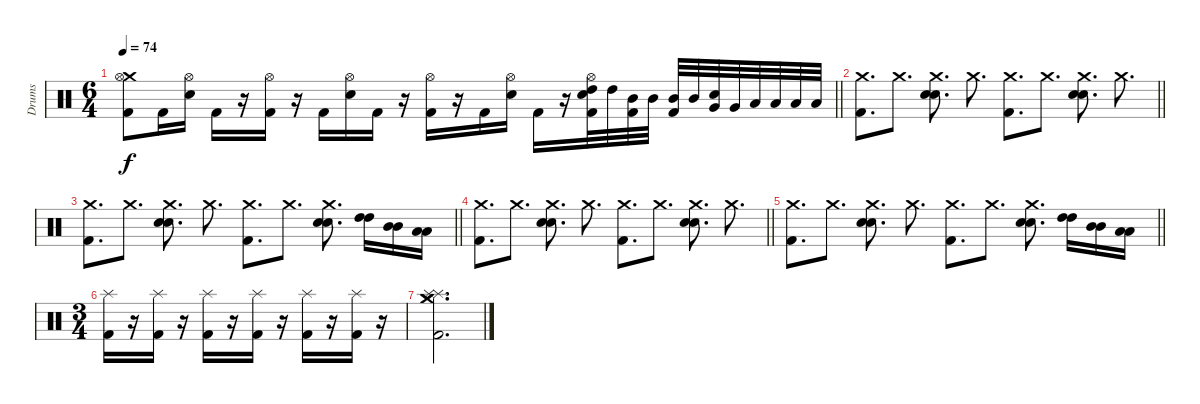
\track ("Drums" "Drums") {instrument percussion}
\staff {score}
\articulation defaults
\ts (6 4)
\tempo 74
\clef neutral
\barLineRight lightlight
\ks c
("Crash medium (hit)" "Hi-Hat (open)" "Kick (hit) 2").8{dy f} "Kick (hit) 2".16 ("Hi-Hat (open)" "Electric Snare (hit)").16 "Kick (hit) 2".16 r.16 ("Hi-Hat (open)" "Kick (hit) 2").16 r.16 "Kick (hit) 2".16 ("Hi-Hat (open)" "Electric Snare (hit)").16 "Kick (hit) 2".16 r.16 ("Hi-Hat (open)" "Kick (hit) 2").16 r.16 "Kick (hit) 2".16 ("Hi-Hat (open)" "Electric Snare (hit)").16 "Kick (hit) 2".16 r.16 ("Electric Snare (hit)" "Hi-Hat (open)" "High Tom (hit)" "Kick (hit) 2").32 "High Tom (hit)".32 ("Mid Tom (hit)" "Kick (hit) 2").32 "Mid Tom (hit)".32 ("Mid Tom (hit)" "Kick (hit) 2").32 "Mid Tom (hit)".32 ("Very Low Tom (hit)" "Electric Snare (hit)").32 "Very Low Tom (hit)".32 "Low Floor Tom (hit)".32 "Low Floor Tom (hit)".32 "Low Floor Tom (hit)".32 "Low Floor Tom (hit)".32 |
\barLineRight lightlight
("Crash medium (hit)" "Kick (hit) 2").8{d} "Crash medium (hit)".8{d} ("Crash medium (hit)" "Electric Snare (hit)" "Electric Snare (hit)").8{d} "Crash medium (hit)".8{d} ("Crash medium (hit)" "Kick (hit) 2").8{d} "Crash medium (hit)".8{d} ("Crash medium (hit)" "Electric Snare (hit)" "Electric Snare (hit)").8{d} "Crash medium (hit)".8{d} |
\barLineRight lightlight
("Crash medium (hit)" "Kick (hit) 2").8{d} "Crash medium (hit)".8{d} ("Crash medium (hit)" "Electric Snare (hit)" "Electric Snare (hit)").8{d} "Crash medium (hit)".8{d} ("Crash medium (hit)" "Kick (hit) 2").8{d} "Crash medium (hit)".8{d} ("Crash medium (hit)" "Electric Snare (hit)" "Electric Snare (hit)").8{d} ("High Tom (hit)" "High Tom (hit)").16 ("Mid Tom (hit)" "Mid Tom (hit)").16 ("Low Tom (hit)" "Low Tom (hit)").16 |
\barLineRight lightlight
("Crash medium (hit)" "Kick (hit) 2").8{d} "Crash medium (hit)".8{d} ("Crash medium (hit)" "Electric Snare (hit)" "Electric Snare (hit)").8{d} "Crash medium (hit)".8{d} ("Crash medium (hit)" "Kick (hit) 2").8{d} "Crash medium (hit)".8{d} ("Crash medium (hit)" "Electric Snare (hit)" "Electric Snare (hit)").8{d} "Crash medium (hit)".8{d} |
\barLineRight lightlight
("Crash medium (hit)" "Kick (hit) 2").8{d} "Crash medium (hit)".8{d} ("Crash medium (hit)" "Electric Snare (hit)" "Electric Snare (hit)").8{d} "Crash medium (hit)".8{d} ("Crash medium (hit)" "Kick (hit) 2").8{d} "Crash medium (hit)".8{d} ("Crash medium (hit)" "Electric Snare (hit)" "Electric Snare (hit)").8{d} ("High Tom (hit)" "High Tom (hit)").16 ("Mid Tom (hit)" "Mid Tom (hit)").16 ("Low Tom (hit)" "Low Tom (hit)").16 |
\ts (3 4)
("Splash (hit)" "Kick (hit) 2").16 r.16 ("Splash (hit)" "Kick (hit) 2").16 r.16 ("Splash (hit)" "Kick (hit) 2").16 r.16 ("Splash (hit)" "Kick (hit) 2").16 r.16 ("Splash (hit)" "Kick (hit) 2").16 r.16 ("Splash (hit)" "Kick (hit) 2").16 r.16 |
("Crash medium (hit)" "Splash (hit)" "Splash (hit)" "Kick (hit) 2" "Crash medium (hit)").2{d}
